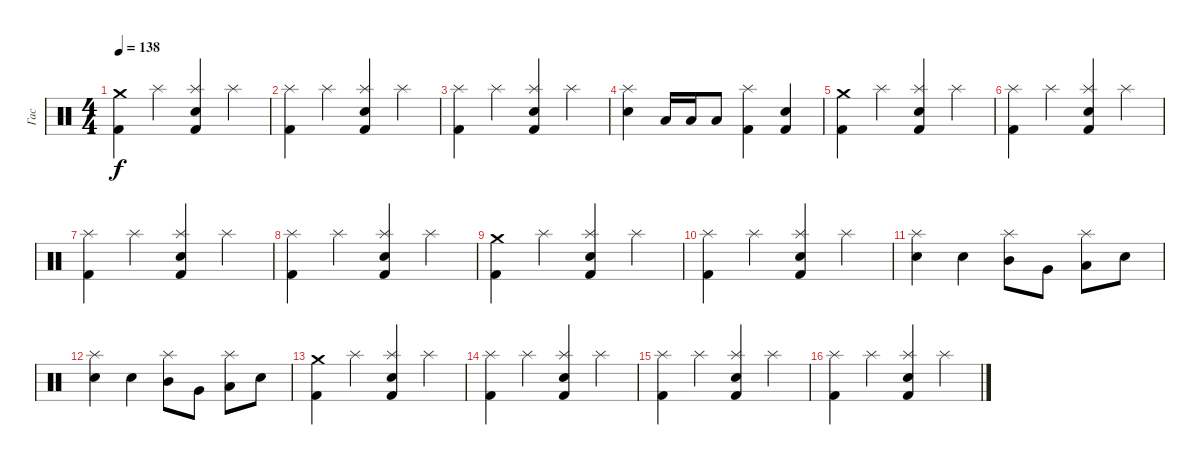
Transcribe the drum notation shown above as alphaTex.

\track ("Гас" "Гас") {instrument percussion}
\staff {score}
\articulation defaults
\ts (4 4)
\tempo 138
\clef neutral
\ks c
("Crash medium (hit)" "Kick (hit) 2").4{dy f} "Splash (hit)".4 ("Splash (hit)" "Electric Snare (hit)" "Kick (hit) 2").4 "Splash (hit)".4 |
("Splash (hit)" "Kick (hit) 2").4 "Splash (hit)".4 ("Splash (hit)" "Electric Snare (hit)" "Kick (hit) 2").4 "Splash (hit)".4 |
("Splash (hit)" "Kick (hit) 2").4 "Splash (hit)".4 ("Splash (hit)" "Electric Snare (hit)" "Kick (hit) 2").4 "Splash (hit)".4 |
("Splash (hit)" "Electric Snare (hit)").4 "Low Floor Tom (hit)".16 "Low Floor Tom (hit)".16 "Low Floor Tom (hit)".8 ("Splash (hit)" "Kick (hit) 2").4 ("Electric Snare (hit)" "Kick (hit) 2").4 |
("Crash medium (hit)" "Kick (hit) 2").4 "Splash (hit)".4 ("Splash (hit)" "Electric Snare (hit)" "Kick (hit) 2").4 "Splash (hit)".4 |
("Splash (hit)" "Kick (hit) 2").4 "Splash (hit)".4 ("Splash (hit)" "Electric Snare (hit)" "Kick (hit) 2").4 "Splash (hit)".4 |
("Splash (hit)" "Kick (hit) 2").4 "Splash (hit)".4 ("Splash (hit)" "Electric Snare (hit)" "Kick (hit) 2").4 "Splash (hit)".4 |
("Splash (hit)" "Kick (hit) 2").4 "Splash (hit)".4 ("Splash (hit)" "Electric Snare (hit)" "Kick (hit) 2").4 "Splash (hit)".4 |
("Crash medium (hit)" "Kick (hit) 2").4 "Splash (hit)".4 ("Splash (hit)" "Electric Snare (hit)" "Kick (hit) 2").4 "Splash (hit)".4 |
("Splash (hit)" "Kick (hit) 2").4 "Splash (hit)".4 ("Splash (hit)" "Electric Snare (hit)" "Kick (hit) 2").4 "Splash (hit)".4 |
("Electric Snare (hit)" "Splash (hit)").4 "Electric Snare (hit)".4 ("Mid Tom (hit)" "Splash (hit)").8 "Very Low Tom (hit)".8 ("Low Floor Tom (hit)" "Splash (hit)").8 "Electric Snare (hit)".8 |
("Electric Snare (hit)" "Splash (hit)").4 "Snare (hit) 2".4 ("Mid Tom (hit)" "Splash (hit)").8 "Very Low Tom (hit)".8 ("Low Floor Tom (hit)" "Splash (hit)").8 "Electric Snare (hit)".8 |
("Crash medium (hit)" "Kick (hit) 2").4 "Splash (hit)".4 ("Splash (hit)" "Electric Snare (hit)" "Kick (hit) 2").4 "Splash (hit)".4 |
("Splash (hit)" "Kick (hit) 2").4 "Splash (hit)".4 ("Splash (hit)" "Electric Snare (hit)" "Kick (hit) 2").4 "Splash (hit)".4 |
("Splash (hit)" "Kick (hit) 2").4 "Splash (hit)".4 ("Splash (hit)" "Electric Snare (hit)" "Kick (hit) 2").4 "Splash (hit)".4 |
("Splash (hit)" "Kick (hit) 2").4 "Splash (hit)".4 ("Splash (hit)" "Electric Snare (hit)" "Kick (hit) 2").4 "Splash (hit)".4
